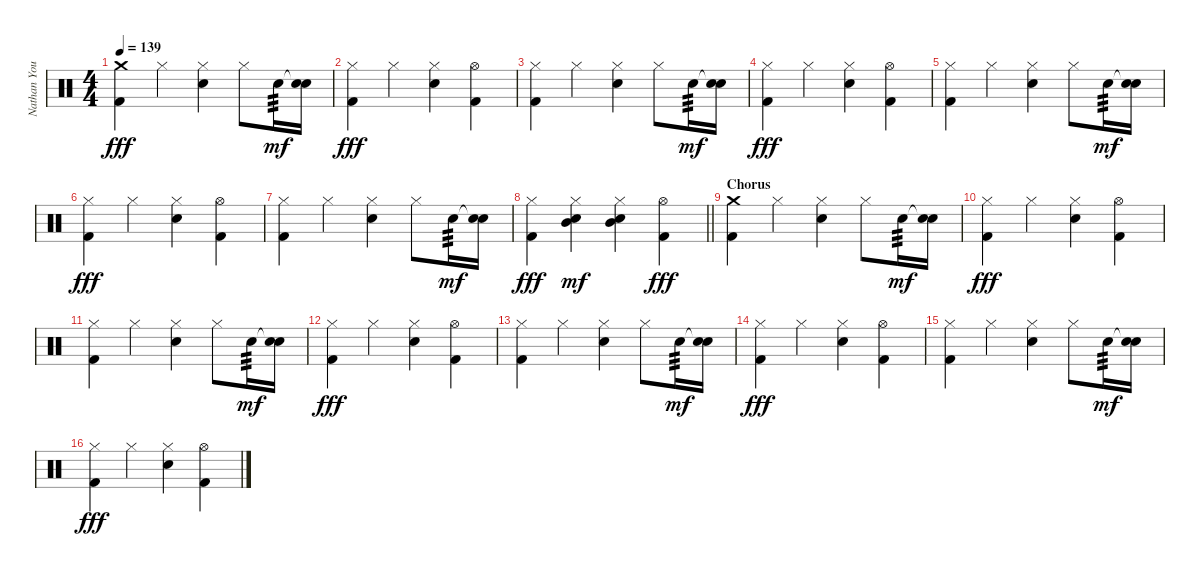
\track ("Nathan Young" "Nathan You") {instrument percussion}
\staff {score}
\articulation defaults
\ts (4 4)
\tempo 139
\clef neutral
\ks c
("Crash medium (hit)" "Kick (hit) 2").4{dy fff} "Hi-Hat (closed)".4 ("Hi-Hat (closed)" "Electric Snare (hit)").4 "Hi-Hat (closed)".8 "Electric Snare (hit)".16{tp 3 dy mf} ("Snare (hit)"{t} "Electric Snare (hit)").16 |
("Hi-Hat (closed)" "Kick (hit) 2").4{dy fff} "Hi-Hat (closed)".4 ("Hi-Hat (closed)" "Electric Snare (hit)").4 ("Hi-Hat (open)" "Kick (hit) 2").4 |
("Hi-Hat (closed)" "Kick (hit) 2").4 "Hi-Hat (closed)".4 ("Hi-Hat (closed)" "Electric Snare (hit)").4 "Hi-Hat (closed)".8 "Electric Snare (hit)".16{tp 3 dy mf} ("Snare (hit)"{t} "Electric Snare (hit)").16 |
("Hi-Hat (closed)" "Kick (hit) 2").4{dy fff} "Hi-Hat (closed)".4 ("Hi-Hat (closed)" "Electric Snare (hit)").4 ("Hi-Hat (open)" "Kick (hit) 2").4 |
("Hi-Hat (closed)" "Kick (hit) 2").4 "Hi-Hat (closed)".4 ("Hi-Hat (closed)" "Electric Snare (hit)").4 "Hi-Hat (closed)".8 "Electric Snare (hit)".16{tp 3 dy mf} ("Snare (hit)"{t} "Electric Snare (hit)").16 |
("Hi-Hat (closed)" "Kick (hit) 2").4{dy fff} "Hi-Hat (closed)".4 ("Hi-Hat (closed)" "Electric Snare (hit)").4 ("Hi-Hat (open)" "Kick (hit) 2").4 |
("Hi-Hat (closed)" "Kick (hit) 2").4 "Hi-Hat (closed)".4 ("Hi-Hat (closed)" "Electric Snare (hit)").4 "Hi-Hat (closed)".8 "Electric Snare (hit)".16{tp 3 dy mf} ("Snare (hit)"{t} "Electric Snare (hit)").16 |
\barLineRight lightlight
("Hi-Hat (closed)" "Kick (hit) 2").4{dy fff} ("Hi-Hat (closed)" "Electric Snare (hit)" "Mid Tom (hit)").4{dy mf} ("Hi-Hat (closed)" "Electric Snare (hit)" "Mid Tom (hit)").4 ("Hi-Hat (open)" "Kick (hit) 2").4{dy fff} |
\section ("" "Chorus")
("Crash medium (hit)" "Kick (hit) 2").4 "Hi-Hat (closed)".4 ("Hi-Hat (closed)" "Electric Snare (hit)").4 "Hi-Hat (closed)".8 "Electric Snare (hit)".16{tp 3 dy mf} ("Snare (hit)"{t} "Electric Snare (hit)").16 |
("Hi-Hat (closed)" "Kick (hit) 2").4{dy fff} "Hi-Hat (closed)".4 ("Hi-Hat (closed)" "Electric Snare (hit)").4 ("Hi-Hat (open)" "Kick (hit) 2").4 |
("Hi-Hat (closed)" "Kick (hit) 2").4 "Hi-Hat (closed)".4 ("Hi-Hat (closed)" "Electric Snare (hit)").4 "Hi-Hat (closed)".8 "Electric Snare (hit)".16{tp 3 dy mf} ("Snare (hit)"{t} "Electric Snare (hit)").16 |
("Hi-Hat (closed)" "Kick (hit) 2").4{dy fff} "Hi-Hat (closed)".4 ("Hi-Hat (closed)" "Electric Snare (hit)").4 ("Hi-Hat (open)" "Kick (hit) 2").4 |
("Hi-Hat (closed)" "Kick (hit) 2").4 "Hi-Hat (closed)".4 ("Hi-Hat (closed)" "Electric Snare (hit)").4 "Hi-Hat (closed)".8 "Electric Snare (hit)".16{tp 3 dy mf} ("Snare (hit)"{t} "Electric Snare (hit)").16 |
("Hi-Hat (closed)" "Kick (hit) 2").4{dy fff} "Hi-Hat (closed)".4 ("Hi-Hat (closed)" "Electric Snare (hit)").4 ("Hi-Hat (open)" "Kick (hit) 2").4 |
("Hi-Hat (closed)" "Kick (hit) 2").4 "Hi-Hat (closed)".4 ("Hi-Hat (closed)" "Electric Snare (hit)").4 "Hi-Hat (closed)".8 "Electric Snare (hit)".16{tp 3 dy mf} ("Snare (hit)"{t} "Electric Snare (hit)").16 |
("Hi-Hat (closed)" "Kick (hit) 2").4{dy fff} "Hi-Hat (closed)".4 ("Hi-Hat (closed)" "Electric Snare (hit)").4 ("Hi-Hat (open)" "Kick (hit) 2").4
